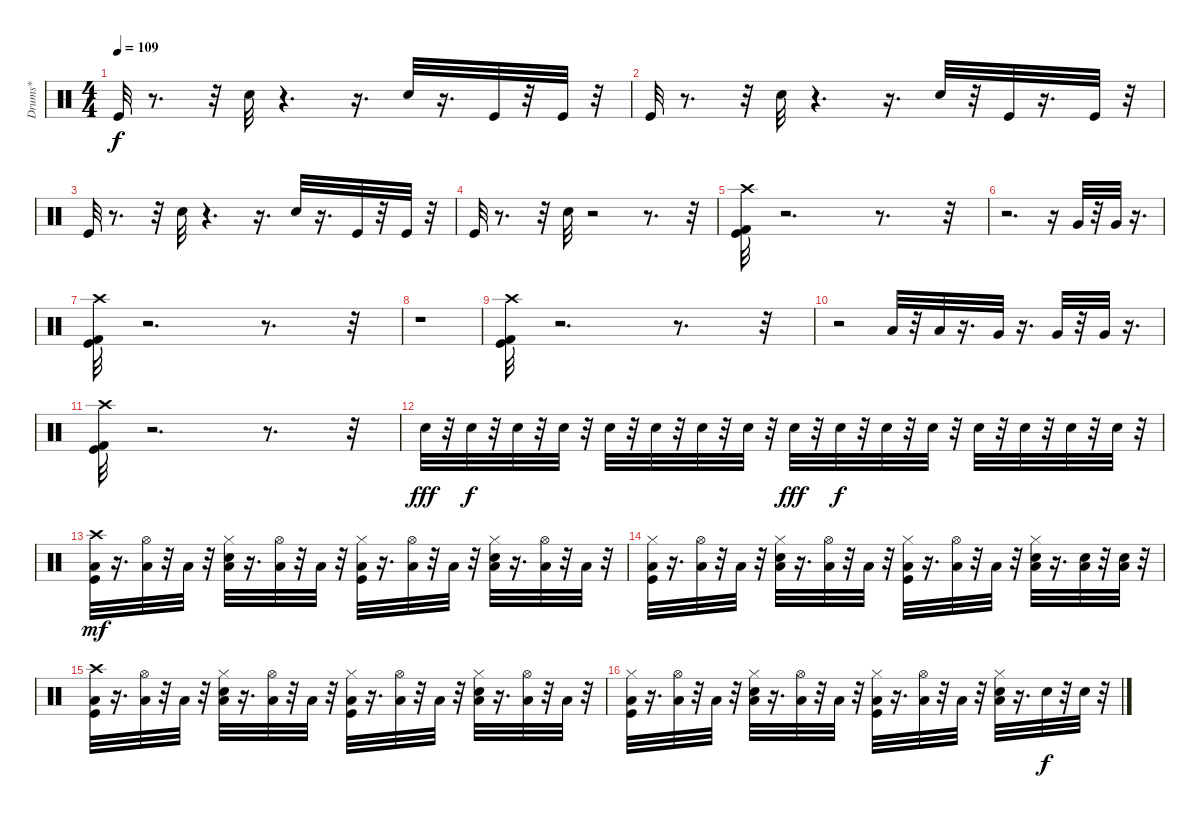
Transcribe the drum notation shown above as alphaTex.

\track ("Drums*" "Drums*") {instrument percussion}
\staff {score}
\articulation defaults
\ts (4 4)
\tempo 109
\clef neutral
\ks c "Kick (hit)".32{dy f}
r.8{d} r.32 "Snare (hit) 2".32 r.4{d} r.16{d} "Snare (hit) 2".32 r.16{d} "Kick (hit)".32 r.32 "Kick (hit)".32 r.32 |
"Kick (hit)".32 r.8{d} r.32 "Snare (hit) 2".32 r.4{d} r.16{d} "Snare (hit) 2".32 r.32 "Kick (hit)".32 r.16{d} "Kick (hit)".32 r.32 |
"Kick (hit)".32 r.8{d} r.32 "Snare (hit) 2".32 r.4{d} r.16{d} "Snare (hit) 2".32 r.16{d} "Kick (hit)".32 r.32 "Kick (hit)".32 r.32 |
"Kick (hit)".32 r.8{d} r.32 "Snare (hit) 2".32 r.2 r.8{d} r.32 |
("Kick (hit) 2" "Kick (hit)" "Crash high (hit)").32 r.2{d} r.8{d} r.32 |
r.2{d} r.16 "Very Low Tom (hit)".32 r.32 "Very Low Tom (hit)".32 r.16{d} |
("Kick (hit)" "Crash high (hit)" "Kick (hit) 2").32 r.2{d} r.8{d} r.32 |
r.1 |
("Crash high (hit)" "Kick (hit) 2" "Kick (hit)").32 r.2{d} r.8{d} r.32 |
r.2 "Low Tom (hit)".32 r.32 "Low Tom (hit)".32 r.16{d} "Very Low Tom (hit)".32 r.16{d} "Very Low Tom (hit)".32 r.32 "Very Low Tom (hit)".32 r.16{d} |
("Crash high (hit)" "Kick (hit)" "Kick (hit) 2").32 r.2{d} r.8{d} r.32 |
"Snare (hit) 2".32{dy fff} r.32 "Snare (hit) 2".32{dy f} r.32 "Snare (hit) 2".32 r.32 "Snare (hit) 2".32 r.32 "Snare (hit) 2".32 r.32 "Snare (hit) 2".32 r.32 "Snare (hit) 2".32 r.32 "Snare (hit) 2".32 r.32 "Snare (hit) 2".32{dy fff} r.32 "Snare (hit) 2".32{dy f} r.32 "Snare (hit) 2".32 r.32 "Snare (hit) 2".32 r.32 "Snare (hit) 2".32 r.32 "Snare (hit) 2".32 r.32 "Snare (hit) 2".32 r.32 "Snare (hit) 2".32 r.32 |
("Crash high (hit)" "Kick (hit)" "Low Tom (hit)").32{dy mf} r.16{d} ("Hi-Hat (open)" "Low Tom (hit)").32 r.32 "Low Tom (hit)".32 r.32 ("Hi-Hat (closed)" "Snare (hit) 2" "Low Tom (hit)").32 r.16{d} ("Hi-Hat (open)" "Low Tom (hit)").32 r.32 "Low Tom (hit)".32 r.32 ("Hi-Hat (closed)" "Kick (hit)" "Low Tom (hit)").32 r.16{d} ("Hi-Hat (open)" "Low Tom (hit)").32 r.32 "Low Tom (hit)".32 r.32 ("Hi-Hat (closed)" "Snare (hit) 2" "Low Tom (hit)").32 r.16{d} ("Hi-Hat (open)" "Low Tom (hit)").32 r.32 "Low Tom (hit)".32 r.32 |
("Hi-Hat (closed)" "Kick (hit)" "Low Tom (hit)").32 r.16{d} ("Hi-Hat (open)" "Low Tom (hit)").32 r.32 "Low Tom (hit)".32 r.32 ("Hi-Hat (closed)" "Snare (hit) 2" "Low Tom (hit)").32 r.16{d} ("Hi-Hat (open)" "Low Tom (hit)").32 r.32 "Low Tom (hit)".32 r.32 ("Hi-Hat (closed)" "Kick (hit)" "Low Tom (hit)").32 r.16{d} ("Hi-Hat (open)" "Low Tom (hit)").32 r.32 "Low Tom (hit)".32 r.32 ("Hi-Hat (closed)" "Snare (hit) 2" "Low Tom (hit)").32 r.16{d} ("Snare (hit) 2" "Low Tom (hit)").32 r.32 ("Snare (hit) 2" "Low Tom (hit)").32 r.32 |
("Crash high (hit)" "Kick (hit)" "Low Tom (hit)").32 r.16{d} ("Hi-Hat (open)" "Low Tom (hit)").32 r.32 "Low Tom (hit)".32 r.32 ("Hi-Hat (closed)" "Snare (hit) 2" "Low Tom (hit)").32 r.16{d} ("Hi-Hat (open)" "Low Tom (hit)").32 r.32 "Low Tom (hit)".32 r.32 ("Hi-Hat (closed)" "Kick (hit)" "Low Tom (hit)").32 r.16{d} ("Hi-Hat (open)" "Low Tom (hit)").32 r.32 "Low Tom (hit)".32 r.32 ("Hi-Hat (closed)" "Snare (hit) 2" "Low Tom (hit)").32 r.16{d} ("Hi-Hat (open)" "Low Tom (hit)").32 r.32 "Low Tom (hit)".32 r.32 |
("Hi-Hat (closed)" "Kick (hit)" "Low Tom (hit)").32 r.16{d} ("Hi-Hat (open)" "Low Tom (hit)").32 r.32 "Low Tom (hit)".32 r.32 ("Hi-Hat (closed)" "Snare (hit) 2" "Low Tom (hit)").32 r.16{d} ("Hi-Hat (open)" "Low Tom (hit)").32 r.32 "Low Tom (hit)".32 r.32 ("Hi-Hat (closed)" "Kick (hit)" "Low Tom (hit)").32 r.16{d} ("Hi-Hat (open)" "Low Tom (hit)").32 r.32 "Low Tom (hit)".32 r.32 ("Hi-Hat (closed)" "Snare (hit) 2" "Low Tom (hit)").32 r.16{d} "Snare (hit) 2".32{dy f} r.32 "Snare (hit) 2".32 r.32
